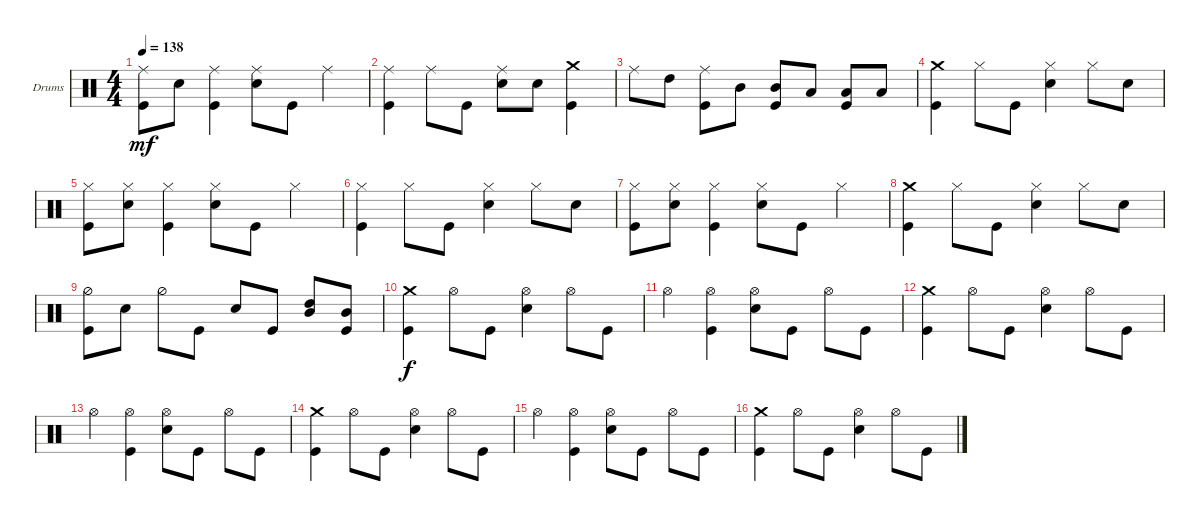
\defaultSystemsLayout 4
\bracketExtendMode groupsimilarinstruments
\firstSystemTrackNameOrientation horizontal
\otherSystemsTrackNameOrientation horizontal
\track ("Drumkit" "Drums") {instrument percussion}
\staff {score}
\articulation defaults
\ts (4 4)
\tempo 138
\clef neutral
\ks c
("Kick (hit)" "Ride (middle)").8{dy mf} "Snare (hit) 2".8 ("Ride (middle)" "Kick (hit)").4 ("Ride (middle)" "Snare (hit) 2").8 "Kick (hit)".8 "Ride (middle)".4 |
("Kick (hit)" "Ride (middle)").4 "Ride (middle)".8 "Kick (hit)".8 ("Ride (middle)" "Snare (hit) 2").8 "Snare (hit) 2".8 ("Crash medium (hit)" "Kick (hit)").4 |
"Ride (middle)".8 "High Tom (hit)".8 ("Ride (middle)" "Kick (hit)").8 "Mid Tom (hit)".8 ("Mid Tom (hit)" "Kick (hit)").8 "Low Tom (hit)".8 ("Low Tom (hit)" "Kick (hit)").8 "Low Tom (hit)".8 |
("Kick (hit)" "Crash medium (hit)").4 "Hi-Hat (closed)".8 "Kick (hit)".8 ("Snare (hit) 2" "Hi-Hat (closed)").4 "Hi-Hat (closed)".8 "Snare (hit) 2".8 |
("Kick (hit)" "Hi-Hat (closed)").8 ("Snare (hit) 2" "Hi-Hat (closed)").8 ("Kick (hit)" "Hi-Hat (closed)").4 ("Snare (hit) 2" "Hi-Hat (closed)").8 "Kick (hit)".8 "Hi-Hat (closed)".4 |
("Kick (hit)" "Hi-Hat (closed)").4 "Hi-Hat (closed)".8 "Kick (hit)".8 ("Snare (hit) 2" "Hi-Hat (closed)").4 "Hi-Hat (closed)".8 "Snare (hit) 2".8 |
("Kick (hit)" "Hi-Hat (closed)").8 ("Snare (hit) 2" "Hi-Hat (closed)").8 ("Kick (hit)" "Hi-Hat (closed)").4 ("Snare (hit) 2" "Hi-Hat (closed)").8 "Kick (hit)".8 "Hi-Hat (closed)".4 |
("Kick (hit)" "Crash medium (hit)").4 "Hi-Hat (closed)".8 "Kick (hit)".8 ("Snare (hit) 2" "Hi-Hat (closed)").4 "Hi-Hat (closed)".8 "Snare (hit) 2".8 |
("Kick (hit)" "Hi-Hat (half)").8 "Snare (hit) 2".8 "Hi-Hat (half)".8 "Kick (hit)".8 "Snare (hit) 2".8 "Kick (hit)".8 ("High Tom (hit)" "Mid Tom (hit)").8 ("Mid Tom (hit)" "Kick (hit)").8 |
("Kick (hit)" "Crash medium (hit)").4{dy f} "Hi-Hat (open)".8 "Kick (hit)".8 ("Hi-Hat (open)" "Snare (hit) 2").4 "Hi-Hat (open)".8 "Kick (hit)".8 |
"Hi-Hat (open)".4 ("Hi-Hat (open)" "Kick (hit)").4 ("Hi-Hat (open)" "Snare (hit) 2").8 "Kick (hit)".8 "Hi-Hat (open)".8 "Kick (hit)".8 |
("Kick (hit)" "Crash medium (hit)").4 "Hi-Hat (open)".8 "Kick (hit)".8 ("Hi-Hat (open)" "Snare (hit) 2").4 "Hi-Hat (open)".8 "Kick (hit)".8 |
"Hi-Hat (open)".4 ("Hi-Hat (open)" "Kick (hit)").4 ("Hi-Hat (open)" "Snare (hit) 2").8 "Kick (hit)".8 "Hi-Hat (open)".8 "Kick (hit)".8 |
("Kick (hit)" "Crash medium (hit)").4 "Hi-Hat (open)".8 "Kick (hit)".8 ("Hi-Hat (open)" "Snare (hit) 2").4 "Hi-Hat (open)".8 "Kick (hit)".8 |
"Hi-Hat (open)".4 ("Hi-Hat (open)" "Kick (hit)").4 ("Hi-Hat (open)" "Snare (hit) 2").8 "Kick (hit)".8 "Hi-Hat (open)".8 "Kick (hit)".8 |
("Kick (hit)" "Crash medium (hit)").4 "Hi-Hat (open)".8 "Kick (hit)".8 ("Hi-Hat (open)" "Snare (hit) 2").4 "Hi-Hat (open)".8 "Kick (hit)".8
